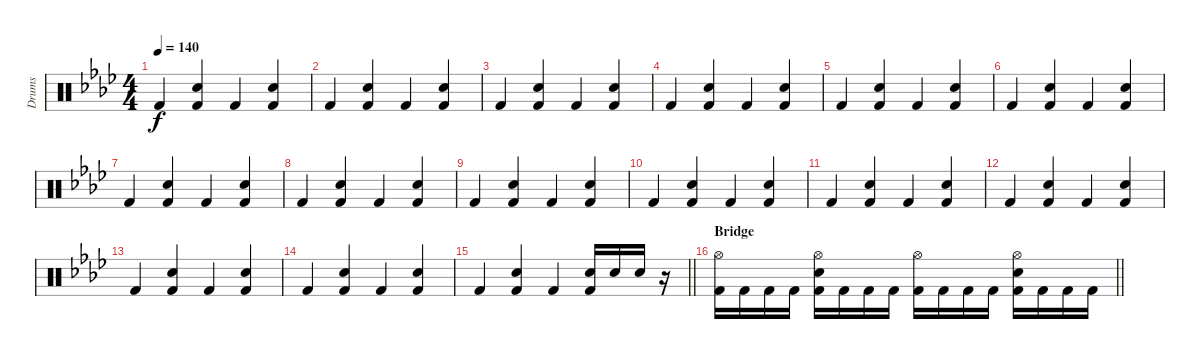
\track ("Drums" "Drums") {instrument percussion}
\staff {score}
\articulation defaults
\ts (4 4)
\tempo 140
\clef neutral
\ks ab "Kick (hit) 2".4{dy f}
("Electric Snare (hit)" "Kick (hit) 2").4 "Kick (hit) 2".4 ("Electric Snare (hit)" "Kick (hit) 2").4 |
"Kick (hit) 2".4 ("Electric Snare (hit)" "Kick (hit) 2").4 "Kick (hit) 2".4 ("Electric Snare (hit)" "Kick (hit) 2").4 |
"Kick (hit) 2".4 ("Electric Snare (hit)" "Kick (hit) 2").4 "Kick (hit) 2".4 ("Electric Snare (hit)" "Kick (hit) 2").4 |
"Kick (hit) 2".4 ("Electric Snare (hit)" "Kick (hit) 2").4 "Kick (hit) 2".4 ("Electric Snare (hit)" "Kick (hit) 2").4 |
"Kick (hit) 2".4 ("Electric Snare (hit)" "Kick (hit) 2").4 "Kick (hit) 2".4 ("Electric Snare (hit)" "Kick (hit) 2").4 |
"Kick (hit) 2".4 ("Electric Snare (hit)" "Kick (hit) 2").4 "Kick (hit) 2".4 ("Electric Snare (hit)" "Kick (hit) 2").4 |
"Kick (hit) 2".4 ("Electric Snare (hit)" "Kick (hit) 2").4 "Kick (hit) 2".4 ("Electric Snare (hit)" "Kick (hit) 2").4 |
"Kick (hit) 2".4 ("Electric Snare (hit)" "Kick (hit) 2").4 "Kick (hit) 2".4 ("Electric Snare (hit)" "Kick (hit) 2").4 |
"Kick (hit) 2".4 ("Electric Snare (hit)" "Kick (hit) 2").4 "Kick (hit) 2".4 ("Electric Snare (hit)" "Kick (hit) 2").4 |
"Kick (hit) 2".4 ("Electric Snare (hit)" "Kick (hit) 2").4 "Kick (hit) 2".4 ("Electric Snare (hit)" "Kick (hit) 2").4 |
"Kick (hit) 2".4 ("Electric Snare (hit)" "Kick (hit) 2").4 "Kick (hit) 2".4 ("Electric Snare (hit)" "Kick (hit) 2").4 |
"Kick (hit) 2".4 ("Electric Snare (hit)" "Kick (hit) 2").4 "Kick (hit) 2".4 ("Electric Snare (hit)" "Kick (hit) 2").4 |
"Kick (hit) 2".4 ("Electric Snare (hit)" "Kick (hit) 2").4 "Kick (hit) 2".4 ("Electric Snare (hit)" "Kick (hit) 2").4 |
"Kick (hit) 2".4 ("Electric Snare (hit)" "Kick (hit) 2").4 "Kick (hit) 2".4 ("Electric Snare (hit)" "Kick (hit) 2").4 |
\barLineRight lightlight "Kick (hit) 2".4
("Electric Snare (hit)" "Kick (hit) 2").4 "Kick (hit) 2".4 ("Electric Snare (hit)" "Kick (hit) 2").16 "Electric Snare (hit)".16 "Electric Snare (hit)".16 r.16 |
\section ("" "Bridge")
\barLineRight lightlight
("Hi-Hat (open)" "Kick (hit) 2").16 "Kick (hit) 2".16 "Kick (hit) 2".16 "Kick (hit) 2".16 ("Hi-Hat (open)" "Electric Snare (hit)" "Kick (hit) 2").16 "Kick (hit) 2".16 "Kick (hit) 2".16 "Kick (hit) 2".16 ("Hi-Hat (open)" "Kick (hit) 2").16 "Kick (hit) 2".16 "Kick (hit) 2".16 "Kick (hit) 2".16 ("Hi-Hat (open)" "Electric Snare (hit)" "Kick (hit) 2").16 "Kick (hit) 2".16 "Kick (hit) 2".16 "Kick (hit) 2".16
